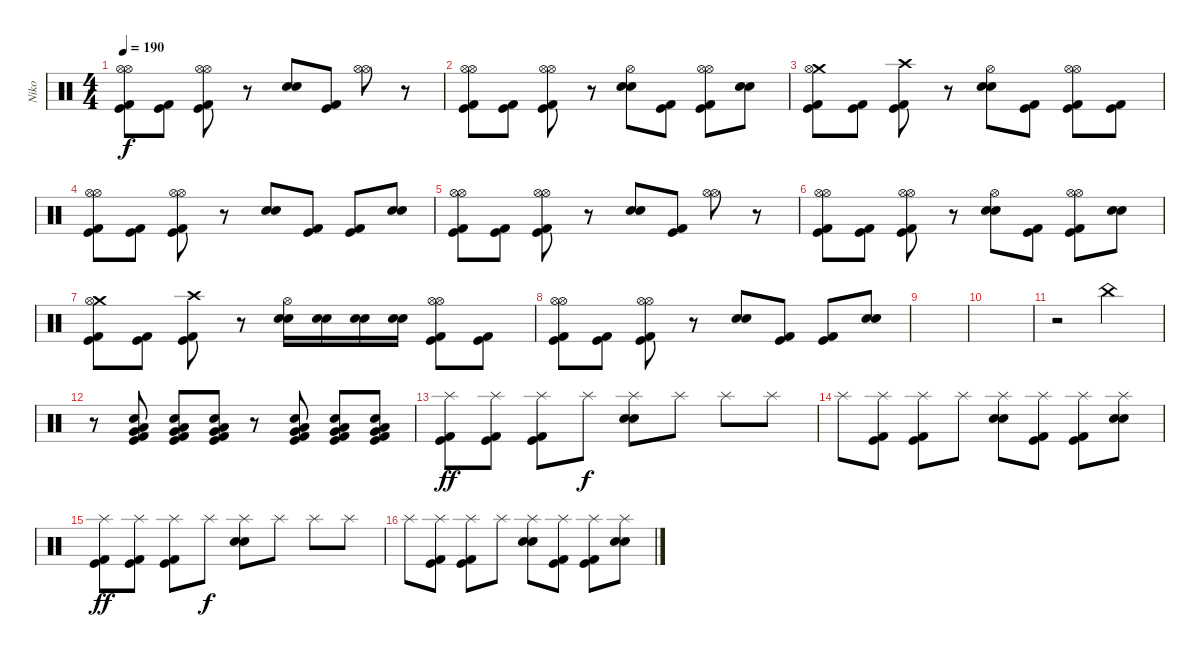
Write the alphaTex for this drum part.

\track ("Niko" "Niko") {instrument percussion}
\staff {score}
\articulation defaults
\ts (4 4)
\tempo 190
\clef neutral
\ks c
("Hi-Hat (open)" "Hi-Hat (open)" "Kick (hit)" "Kick (hit) 2").8{dy f} ("Kick (hit) 2" "Kick (hit)").8 ("Hi-Hat (open)" "Hi-Hat (open)" "Kick (hit) 2" "Kick (hit)").8 r.8 ("Electric Snare (hit)" "Electric Snare (hit)").8 ("Kick (hit) 2" "Kick (hit)").8 ("Hi-Hat (open)" "Hi-Hat (open)").8 r.8 |
("Hi-Hat (open)" "Hi-Hat (open)" "Kick (hit)" "Kick (hit) 2").8 ("Kick (hit) 2" "Kick (hit)").8 ("Hi-Hat (open)" "Hi-Hat (open)" "Kick (hit) 2" "Kick (hit)").8 r.8 ("Hi-Hat (open)" "Electric Snare (hit)" "Electric Snare (hit)").8 ("Kick (hit) 2" "Kick (hit)").8 ("Hi-Hat (open)" "Hi-Hat (open)" "Kick (hit) 2" "Kick (hit)").8 ("Electric Snare (hit)" "Electric Snare (hit)").8 |
("Crash medium (hit)" "Hi-Hat (open)" "Kick (hit)" "Kick (hit) 2").8 ("Kick (hit) 2" "Kick (hit)").8 ("Crash high (hit)" "Kick (hit) 2" "Kick (hit)").8 r.8 ("Hi-Hat (open)" "Electric Snare (hit)" "Electric Snare (hit)").8 ("Kick (hit) 2" "Kick (hit)").8 ("Hi-Hat (open)" "Hi-Hat (open)" "Kick (hit) 2" "Kick (hit)").8 ("Kick (hit) 2" "Kick (hit)").8 |
("Hi-Hat (open)" "Hi-Hat (open)" "Kick (hit)" "Kick (hit) 2").8 ("Kick (hit) 2" "Kick (hit)").8 ("Hi-Hat (open)" "Hi-Hat (open)" "Kick (hit) 2" "Kick (hit)").8 r.8 ("Electric Snare (hit)" "Electric Snare (hit)").8 ("Kick (hit) 2" "Kick (hit)").8 ("Kick (hit) 2" "Kick (hit)").8 ("Electric Snare (hit)" "Electric Snare (hit)").8 |
("Hi-Hat (open)" "Hi-Hat (open)" "Kick (hit)" "Kick (hit) 2").8 ("Kick (hit) 2" "Kick (hit)").8 ("Hi-Hat (open)" "Hi-Hat (open)" "Kick (hit) 2" "Kick (hit)").8 r.8 ("Electric Snare (hit)" "Electric Snare (hit)").8 ("Kick (hit) 2" "Kick (hit)").8 ("Hi-Hat (open)" "Hi-Hat (open)").8 r.8 |
("Hi-Hat (open)" "Hi-Hat (open)" "Kick (hit)" "Kick (hit) 2").8 ("Kick (hit) 2" "Kick (hit)").8 ("Hi-Hat (open)" "Hi-Hat (open)" "Kick (hit) 2" "Kick (hit)").8 r.8 ("Hi-Hat (open)" "Electric Snare (hit)" "Electric Snare (hit)").8 ("Kick (hit) 2" "Kick (hit)").8 ("Hi-Hat (open)" "Hi-Hat (open)" "Kick (hit) 2" "Kick (hit)").8 ("Electric Snare (hit)" "Electric Snare (hit)").8 |
("Crash medium (hit)" "Hi-Hat (open)" "Kick (hit)" "Kick (hit) 2").8 ("Kick (hit) 2" "Kick (hit)").8 ("Crash high (hit)" "Kick (hit) 2" "Kick (hit)").8 r.8 ("Hi-Hat (open)" "Electric Snare (hit)" "Electric Snare (hit)").16 ("Electric Snare (hit)" "Electric Snare (hit)").16 ("Electric Snare (hit)" "Electric Snare (hit)").16 ("Electric Snare (hit)" "Electric Snare (hit)").16 ("Hi-Hat (open)" "Hi-Hat (open)" "Kick (hit) 2" "Kick (hit)").8 ("Kick (hit) 2" "Kick (hit)").8 |
("Hi-Hat (open)" "Hi-Hat (open)" "Kick (hit)" "Kick (hit) 2").8 ("Kick (hit) 2" "Kick (hit)").8 ("Hi-Hat (open)" "Hi-Hat (open)" "Kick (hit) 2" "Kick (hit)").8 r.8 ("Electric Snare (hit)" "Electric Snare (hit)").8 ("Kick (hit) 2" "Kick (hit)").8 ("Kick (hit) 2" "Kick (hit)").8 ("Electric Snare (hit)" "Electric Snare (hit)").8 |
|
|
r.2 "China (hit)".2 |
r.8 ("Electric Snare (hit)" "Low Floor Tom (hit)" "Very Low Tom (hit)" "Kick (hit) 2" "Kick (hit)").8 ("Electric Snare (hit)" "Low Floor Tom (hit)" "Very Low Tom (hit)" "Kick (hit)" "Kick (hit) 2").8 ("Electric Snare (hit)" "Low Floor Tom (hit)" "Very Low Tom (hit)" "Kick (hit) 2" "Kick (hit)").8 r.8 ("Electric Snare (hit)" "Low Floor Tom (hit)" "Very Low Tom (hit)" "Kick (hit)" "Kick (hit) 2").8 ("Electric Snare (hit)" "Low Floor Tom (hit)" "Very Low Tom (hit)" "Kick (hit) 2" "Kick (hit)").8 ("Electric Snare (hit)" "Low Floor Tom (hit)" "Very Low Tom (hit)" "Kick (hit)" "Kick (hit) 2").8 |
("Splash (hit)" "Kick (hit) 2" "Kick (hit)").8{dy ff} ("Splash (hit)" "Kick (hit)" "Kick (hit) 2").8 ("Splash (hit)" "Kick (hit)" "Kick (hit) 2").8 "Splash (hit)".8{dy f} ("Splash (hit)" "Electric Snare (hit)" "Electric Snare (hit)").8 "Splash (hit)".8 "Splash (hit)".8 "Splash (hit)".8 |
"Splash (hit)".8 ("Splash (hit)" "Kick (hit) 2" "Kick (hit)").8 ("Splash (hit)" "Kick (hit)" "Kick (hit) 2").8 "Splash (hit)".8 ("Splash (hit)" "Electric Snare (hit)" "Electric Snare (hit)").8 ("Splash (hit)" "Kick (hit) 2" "Kick (hit)").8 ("Splash (hit)" "Kick (hit) 2" "Kick (hit)").8 ("Splash (hit)" "Electric Snare (hit)" "Electric Snare (hit)").8 |
("Splash (hit)" "Kick (hit) 2" "Kick (hit)").8{dy ff} ("Splash (hit)" "Kick (hit)" "Kick (hit) 2").8 ("Splash (hit)" "Kick (hit)" "Kick (hit) 2").8 "Splash (hit)".8{dy f} ("Splash (hit)" "Electric Snare (hit)" "Electric Snare (hit)").8 "Splash (hit)".8 "Splash (hit)".8 "Splash (hit)".8 |
"Splash (hit)".8 ("Splash (hit)" "Kick (hit) 2" "Kick (hit)").8 ("Splash (hit)" "Kick (hit)" "Kick (hit) 2").8 "Splash (hit)".8 ("Splash (hit)" "Electric Snare (hit)" "Electric Snare (hit)").8 ("Splash (hit)" "Kick (hit) 2" "Kick (hit)").8 ("Splash (hit)" "Kick (hit) 2" "Kick (hit)").8 ("Splash (hit)" "Electric Snare (hit)" "Electric Snare (hit)").8
